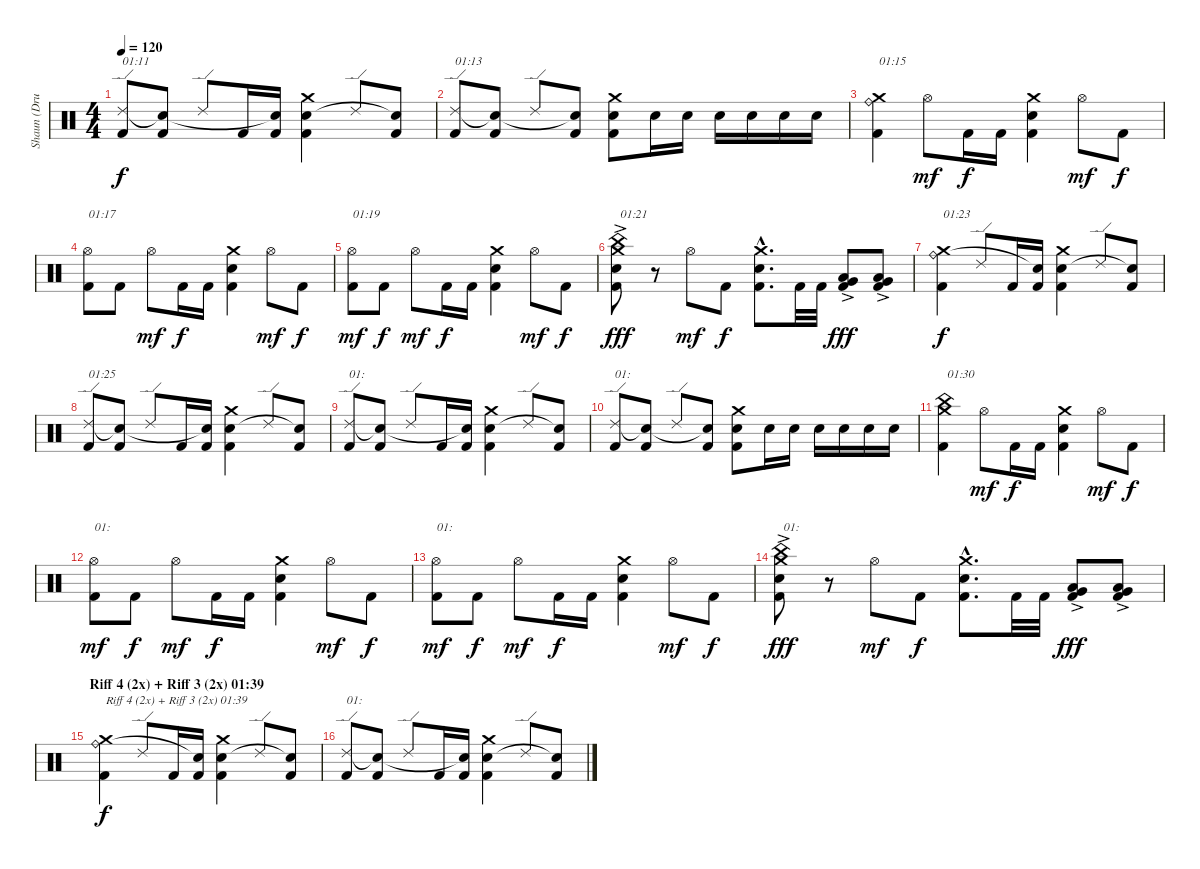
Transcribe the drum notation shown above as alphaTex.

\track ("Shaun (Drums Of DOOM)" "Shaun (Dru") {instrument percussion}
\staff {score}
\articulation defaults
\ts (4 4)
\tempo 120
\clef neutral
\ks c
("Kick (hit) 2" "Ride (edge) 2").8{txt "01:11" dy f} ("Kick (hit) 2" "Snare (hit)"{t}).8 "Ride (edge) 2".8 "Kick (hit) 2".16 ("Kick (hit) 2" "Snare (hit)"{t}).16 ("Kick (hit) 2" "Electric Snare (hit)" "Crash medium (hit)").4 "Ride (edge) 2".8 ("Kick (hit) 2" "Snare (hit)"{t}).8 |
("Kick (hit) 2" "Ride (edge) 2").8{txt "01:13"} ("Kick (hit) 2" "Snare (hit)"{t}).8 "Ride (edge) 2".8 ("Kick (hit) 2" "Snare (hit)"{t}).8 ("Kick (hit) 2" "Electric Snare (hit)" "Crash medium (hit)").8 "Electric Snare (hit)".16 "Electric Snare (hit)".16 "Electric Snare (hit)".16 "Electric Snare (hit)".16 "Electric Snare (hit)".16 "Electric Snare (hit)".16 |
("Kick (hit) 2" "Ride (bell)" "Crash medium (hit)").4{txt "01:15"} "Hi-Hat (open)".8{dy mf} "Kick (hit) 2".16{dy f} "Kick (hit) 2".16 ("Kick (hit) 2" "Electric Snare (hit)" "Crash medium (hit)").4 "Hi-Hat (open)".8{dy mf} "Kick (hit) 2".8{dy f} |
("Kick (hit) 2" "Hi-Hat (open)").8{txt "01:17 "} "Kick (hit) 2".8 "Hi-Hat (open)".8{dy mf} "Kick (hit) 2".16{dy f} "Kick (hit) 2".16 ("Kick (hit) 2" "Electric Snare (hit)" "Crash medium (hit)").4 "Hi-Hat (open)".8{dy mf} "Kick (hit) 2".8{dy f} |
("Kick (hit) 2" "Hi-Hat (open)").8{txt "01:19" dy mf} "Kick (hit) 2".8{dy f} "Hi-Hat (open)".8{dy mf} "Kick (hit) 2".16{dy f} "Kick (hit) 2".16 ("Kick (hit) 2" "Electric Snare (hit)" "Crash medium (hit)").4 "Hi-Hat (open)".8{dy mf} "Kick (hit) 2".8{dy f} |
("Kick (hit) 2" "Electric Snare (hit)" "China (hit)"{ac} "Crash medium (hit)"{ac}).8{txt "01:21" dy fff} r.8 "Hi-Hat (open)".8{dy mf} "Kick (hit) 2".8{dy f} ("Kick (hit) 2"{hac} "Electric Snare (hit)"{hac} "Crash medium (hit)"{hac}).8{d} "Kick (hit) 2".32 "Kick (hit) 2".32 ("Kick (hit) 2" "Low Floor Tom (hit)"{ac} "Very Low Tom (hit)"{ac}).8{dy fff} ("Kick (hit) 2" "Low Tom (hit)"{ac} "Very Low Tom (hit)"{ac}).8 |
("Kick (hit) 2" "Ride (bell)" "Crash medium (hit)").4{txt "01:23" dy f} "Ride (edge) 2".8 "Kick (hit) 2".16 ("Kick (hit) 2" "Snare (hit)"{t}).16 ("Kick (hit) 2" "Electric Snare (hit)" "Crash medium (hit)").4 "Ride (edge) 2".8 ("Kick (hit) 2" "Snare (hit)"{t}).8 |
("Kick (hit) 2" "Ride (edge) 2").8{txt "01:25"} ("Kick (hit) 2" "Snare (hit)"{t}).8 "Ride (edge) 2".8 "Kick (hit) 2".16 ("Kick (hit) 2" "Snare (hit)"{t}).16 ("Kick (hit) 2" "Electric Snare (hit)" "Crash medium (hit)").4 "Ride (edge) 2".8 ("Kick (hit) 2" "Snare (hit)"{t}).8 |
("Kick (hit) 2" "Ride (edge) 2").8{txt "01:"} ("Kick (hit) 2" "Snare (hit)"{t}).8 "Ride (edge) 2".8 "Kick (hit) 2".16 ("Kick (hit) 2" "Snare (hit)"{t}).16 ("Kick (hit) 2" "Electric Snare (hit)" "Crash medium (hit)").4 "Ride (edge) 2".8 ("Kick (hit) 2" "Snare (hit)"{t}).8 |
("Kick (hit) 2" "Ride (edge) 2").8{txt "01:"} ("Kick (hit) 2" "Snare (hit)"{t}).8 "Ride (edge) 2".8 ("Kick (hit) 2" "Snare (hit)"{t}).8 ("Kick (hit) 2" "Electric Snare (hit)" "Crash medium (hit)").8 "Electric Snare (hit)".16 "Electric Snare (hit)".16 "Electric Snare (hit)".16 "Electric Snare (hit)".16 "Electric Snare (hit)".16 "Electric Snare (hit)".16 |
("Kick (hit) 2" "China (hit)" "Crash medium (hit)").4{txt "01:30"} "Hi-Hat (open)".8{dy mf} "Kick (hit) 2".16{dy f} "Kick (hit) 2".16 ("Kick (hit) 2" "Electric Snare (hit)" "Crash medium (hit)").4 "Hi-Hat (open)".8{dy mf} "Kick (hit) 2".8{dy f} |
("Kick (hit) 2" "Hi-Hat (open)").8{txt "01:" dy mf} "Kick (hit) 2".8{dy f} "Hi-Hat (open)".8{dy mf} "Kick (hit) 2".16{dy f} "Kick (hit) 2".16 ("Kick (hit) 2" "Electric Snare (hit)" "Crash medium (hit)").4 "Hi-Hat (open)".8{dy mf} "Kick (hit) 2".8{dy f} |
("Kick (hit) 2" "Hi-Hat (open)").8{txt "01:" dy mf} "Kick (hit) 2".8{dy f} "Hi-Hat (open)".8{dy mf} "Kick (hit) 2".16{dy f} "Kick (hit) 2".16 ("Kick (hit) 2" "Electric Snare (hit)" "Crash medium (hit)").4 "Hi-Hat (open)".8{dy mf} "Kick (hit) 2".8{dy f} |
("Kick (hit) 2" "Electric Snare (hit)" "China (hit)"{ac} "Crash medium (hit)"{ac}).8{txt "01:" dy fff} r.8 "Hi-Hat (open)".8{dy mf} "Kick (hit) 2".8{dy f} ("Kick (hit) 2"{hac} "Electric Snare (hit)"{hac} "Crash medium (hit)"{hac}).8{d} "Kick (hit) 2".32 "Kick (hit) 2".32 ("Kick (hit) 2" "Low Floor Tom (hit)"{ac} "Very Low Tom (hit)"{ac}).8{dy fff} ("Kick (hit) 2" "Low Tom (hit)"{ac} "Very Low Tom (hit)"{ac}).8 |
\section ("" "Riff 4 (2x) + Riff 3 (2x) 01:39")
("Kick (hit) 2" "Ride (bell)" "Crash medium (hit)").4{txt "Riff 4 (2x) + Riff 3 (2x) 01:39" dy f} "Ride (edge) 2".8 "Kick (hit) 2".16 ("Kick (hit) 2" "Snare (hit)"{t}).16 ("Kick (hit) 2" "Electric Snare (hit)" "Crash medium (hit)").4 "Ride (edge) 2".8 ("Kick (hit) 2" "Snare (hit)"{t}).8 |
("Kick (hit) 2" "Ride (edge) 2").8{txt "01:"} ("Kick (hit) 2" "Snare (hit)"{t}).8 "Ride (edge) 2".8 "Kick (hit) 2".16 ("Kick (hit) 2" "Snare (hit)"{t}).16 ("Kick (hit) 2" "Electric Snare (hit)" "Crash medium (hit)").4 "Ride (edge) 2".8 ("Kick (hit) 2" "Snare (hit)"{t}).8
